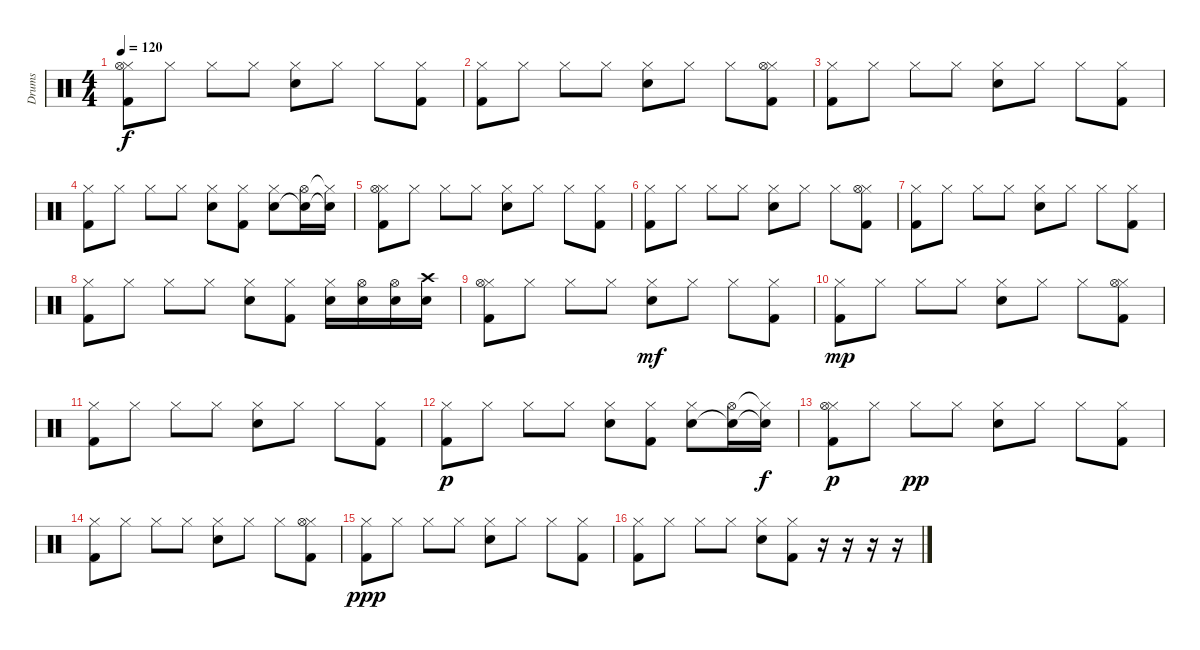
\track ("Drums" "Drums") {instrument percussion}
\staff {score}
\articulation defaults
\ts (4 4)
\tempo 120
\clef neutral
\ks c
("Hi-Hat (closed)" "Hi-Hat (open)" "Kick (hit) 2").8{dy f} "Hi-Hat (closed)".8 "Hi-Hat (closed)".8 "Hi-Hat (closed)".8 ("Hi-Hat (closed)" "Electric Snare (hit)").8 "Hi-Hat (closed)".8 "Hi-Hat (closed)".8 ("Hi-Hat (closed)" "Kick (hit) 2").8 |
("Hi-Hat (closed)" "Kick (hit) 2").8 "Hi-Hat (closed)".8 "Hi-Hat (closed)".8 "Hi-Hat (closed)".8 ("Hi-Hat (closed)" "Electric Snare (hit)").8 "Hi-Hat (closed)".8 "Hi-Hat (closed)".8 ("Hi-Hat (closed)" "Hi-Hat (open)" "Kick (hit) 2").8 |
("Hi-Hat (closed)" "Kick (hit) 2").8 "Hi-Hat (closed)".8 "Hi-Hat (closed)".8 "Hi-Hat (closed)".8 ("Hi-Hat (closed)" "Electric Snare (hit)").8 "Hi-Hat (closed)".8 "Hi-Hat (closed)".8 ("Hi-Hat (closed)" "Kick (hit) 2").8 |
("Hi-Hat (closed)" "Kick (hit) 2").8 "Hi-Hat (closed)".8 "Hi-Hat (closed)".8 "Hi-Hat (closed)".8 ("Hi-Hat (closed)" "Electric Snare (hit)").8 ("Hi-Hat (closed)" "Kick (hit) 2").8 ("Hi-Hat (closed)" "Electric Snare (hit)").8 ("Hi-Hat (open)" "Electric Snare (hit)"{t}).16 ("Hi-Hat (closed)"{t} "Electric Snare (hit)"{t}).16 |
("Hi-Hat (closed)" "Hi-Hat (open)" "Kick (hit) 2").8 "Hi-Hat (closed)".8 "Hi-Hat (closed)".8 "Hi-Hat (closed)".8 ("Hi-Hat (closed)" "Electric Snare (hit)").8 "Hi-Hat (closed)".8 "Hi-Hat (closed)".8 ("Hi-Hat (closed)" "Kick (hit) 2").8 |
("Hi-Hat (closed)" "Kick (hit) 2").8 "Hi-Hat (closed)".8 "Hi-Hat (closed)".8 "Hi-Hat (closed)".8 ("Hi-Hat (closed)" "Electric Snare (hit)").8 "Hi-Hat (closed)".8 "Hi-Hat (closed)".8 ("Hi-Hat (closed)" "Hi-Hat (open)" "Kick (hit) 2").8 |
("Hi-Hat (closed)" "Kick (hit) 2").8 "Hi-Hat (closed)".8 "Hi-Hat (closed)".8 "Hi-Hat (closed)".8 ("Hi-Hat (closed)" "Electric Snare (hit)").8 "Hi-Hat (closed)".8 "Hi-Hat (closed)".8 ("Hi-Hat (closed)" "Kick (hit) 2").8 |
("Hi-Hat (closed)" "Kick (hit) 2").8 "Hi-Hat (closed)".8 "Hi-Hat (closed)".8 "Hi-Hat (closed)".8 ("Hi-Hat (closed)" "Electric Snare (hit)").8 ("Hi-Hat (closed)" "Kick (hit) 2").8 ("Hi-Hat (closed)" "Electric Snare (hit)").16 ("Hi-Hat (open)" "Electric Snare (hit)").16 ("Hi-Hat (open)" "Electric Snare (hit)").16 ("Crash high (hit)" "Electric Snare (hit)").16 |
("Hi-Hat (closed)" "Hi-Hat (open)" "Kick (hit) 2").8 "Hi-Hat (closed)".8 "Hi-Hat (closed)".8 "Hi-Hat (closed)".8 ("Hi-Hat (closed)" "Electric Snare (hit)").8{dy mf} "Hi-Hat (closed)".8 "Hi-Hat (closed)".8 ("Hi-Hat (closed)" "Kick (hit) 2").8 |
("Hi-Hat (closed)" "Kick (hit) 2").8{dy mp} "Hi-Hat (closed)".8 "Hi-Hat (closed)".8 "Hi-Hat (closed)".8 ("Hi-Hat (closed)" "Electric Snare (hit)").8 "Hi-Hat (closed)".8 "Hi-Hat (closed)".8 ("Hi-Hat (closed)" "Hi-Hat (open)" "Kick (hit) 2").8 |
("Hi-Hat (closed)" "Kick (hit) 2").8 "Hi-Hat (closed)".8 "Hi-Hat (closed)".8 "Hi-Hat (closed)".8 ("Hi-Hat (closed)" "Electric Snare (hit)").8 "Hi-Hat (closed)".8 "Hi-Hat (closed)".8 ("Hi-Hat (closed)" "Kick (hit) 2").8 |
("Hi-Hat (closed)" "Kick (hit) 2").8{dy p} "Hi-Hat (closed)".8 "Hi-Hat (closed)".8 "Hi-Hat (closed)".8 ("Hi-Hat (closed)" "Electric Snare (hit)").8 ("Hi-Hat (closed)" "Kick (hit) 2").8 ("Hi-Hat (closed)" "Electric Snare (hit)").8 ("Hi-Hat (open)" "Electric Snare (hit)"{t}).16 ("Hi-Hat (closed)"{t} "Electric Snare (hit)"{t}).16{dy f} |
("Hi-Hat (closed)" "Hi-Hat (open)" "Kick (hit) 2").8{dy p} "Hi-Hat (closed)".8 "Hi-Hat (closed)".8{dy pp} "Hi-Hat (closed)".8 ("Hi-Hat (closed)" "Electric Snare (hit)").8 "Hi-Hat (closed)".8 "Hi-Hat (closed)".8 ("Hi-Hat (closed)" "Kick (hit) 2").8 |
("Hi-Hat (closed)" "Kick (hit) 2").8 "Hi-Hat (closed)".8 "Hi-Hat (closed)".8 "Hi-Hat (closed)".8 ("Hi-Hat (closed)" "Electric Snare (hit)").8 "Hi-Hat (closed)".8 "Hi-Hat (closed)".8 ("Hi-Hat (closed)" "Hi-Hat (open)" "Kick (hit) 2").8 |
("Hi-Hat (closed)" "Kick (hit) 2").8{dy ppp} "Hi-Hat (closed)".8 "Hi-Hat (closed)".8 "Hi-Hat (closed)".8 ("Hi-Hat (closed)" "Electric Snare (hit)").8 "Hi-Hat (closed)".8 "Hi-Hat (closed)".8 ("Hi-Hat (closed)" "Kick (hit) 2").8 |
("Hi-Hat (closed)" "Kick (hit) 2").8 "Hi-Hat (closed)".8 "Hi-Hat (closed)".8 "Hi-Hat (closed)".8 ("Hi-Hat (closed)" "Electric Snare (hit)").8 ("Hi-Hat (closed)" "Kick (hit) 2").8 r.16 r.16 r.16 r.16
